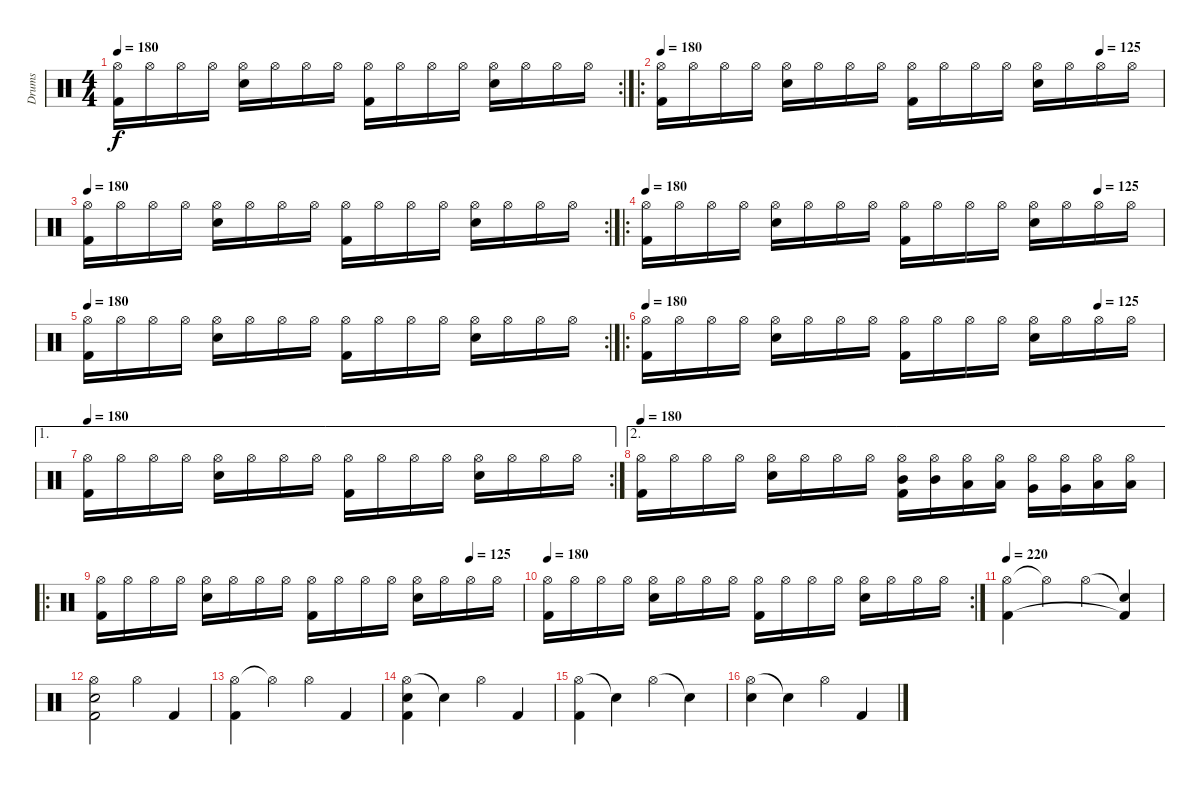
\track ("Drums" "Drums") {instrument percussion}
\staff {score}
\articulation defaults
\rc 2
\ts (4 4)
\tempo 180
\clef neutral
\ks c
("Hi-Hat (open)" "Kick (hit) 2").16{dy f} "Hi-Hat (open)".16 "Hi-Hat (open)".16 "Hi-Hat (open)".16 ("Hi-Hat (open)" "Snare (hit) 2").16 "Hi-Hat (open)".16 "Hi-Hat (open)".16 "Hi-Hat (open)".16 ("Hi-Hat (open)" "Kick (hit) 2").16 "Hi-Hat (open)".16 "Hi-Hat (open)".16 "Hi-Hat (open)".16 ("Hi-Hat (open)" "Snare (hit) 2").16 "Hi-Hat (open)".16 "Hi-Hat (open)".16 "Hi-Hat (open)".16 |
\ro
\tempo 180
\tempo (125 0.875)
("Hi-Hat (open)" "Kick (hit) 2").16 "Hi-Hat (open)".16 "Hi-Hat (open)".16 "Hi-Hat (open)".16 ("Hi-Hat (open)" "Snare (hit) 2").16 "Hi-Hat (open)".16 "Hi-Hat (open)".16 "Hi-Hat (open)".16 ("Hi-Hat (open)" "Kick (hit) 2").16 "Hi-Hat (open)".16 "Hi-Hat (open)".16 "Hi-Hat (open)".16 ("Hi-Hat (open)" "Snare (hit) 2").16 "Hi-Hat (open)".16 "Hi-Hat (open)".16 "Hi-Hat (open)".16 |
\rc 2
\tempo 180
("Hi-Hat (open)" "Kick (hit) 2").16 "Hi-Hat (open)".16 "Hi-Hat (open)".16 "Hi-Hat (open)".16 ("Hi-Hat (open)" "Snare (hit) 2").16 "Hi-Hat (open)".16 "Hi-Hat (open)".16 "Hi-Hat (open)".16 ("Hi-Hat (open)" "Kick (hit) 2").16 "Hi-Hat (open)".16 "Hi-Hat (open)".16 "Hi-Hat (open)".16 ("Hi-Hat (open)" "Snare (hit) 2").16 "Hi-Hat (open)".16 "Hi-Hat (open)".16 "Hi-Hat (open)".16 |
\ro
\tempo 180
\tempo (125 0.875)
("Hi-Hat (open)" "Kick (hit) 2").16 "Hi-Hat (open)".16 "Hi-Hat (open)".16 "Hi-Hat (open)".16 ("Hi-Hat (open)" "Snare (hit) 2").16 "Hi-Hat (open)".16 "Hi-Hat (open)".16 "Hi-Hat (open)".16 ("Hi-Hat (open)" "Kick (hit) 2").16 "Hi-Hat (open)".16 "Hi-Hat (open)".16 "Hi-Hat (open)".16 ("Hi-Hat (open)" "Snare (hit) 2").16 "Hi-Hat (open)".16 "Hi-Hat (open)".16 "Hi-Hat (open)".16 |
\rc 2
\tempo 180
("Hi-Hat (open)" "Kick (hit) 2").16 "Hi-Hat (open)".16 "Hi-Hat (open)".16 "Hi-Hat (open)".16 ("Hi-Hat (open)" "Snare (hit) 2").16 "Hi-Hat (open)".16 "Hi-Hat (open)".16 "Hi-Hat (open)".16 ("Hi-Hat (open)" "Kick (hit) 2").16 "Hi-Hat (open)".16 "Hi-Hat (open)".16 "Hi-Hat (open)".16 ("Hi-Hat (open)" "Snare (hit) 2").16 "Hi-Hat (open)".16 "Hi-Hat (open)".16 "Hi-Hat (open)".16 |
\ro
\tempo 180
\tempo (125 0.875)
("Hi-Hat (open)" "Kick (hit) 2").16 "Hi-Hat (open)".16 "Hi-Hat (open)".16 "Hi-Hat (open)".16 ("Hi-Hat (open)" "Snare (hit) 2").16 "Hi-Hat (open)".16 "Hi-Hat (open)".16 "Hi-Hat (open)".16 ("Hi-Hat (open)" "Kick (hit) 2").16 "Hi-Hat (open)".16 "Hi-Hat (open)".16 "Hi-Hat (open)".16 ("Hi-Hat (open)" "Snare (hit) 2").16 "Hi-Hat (open)".16 "Hi-Hat (open)".16 "Hi-Hat (open)".16 |
\ae 1
\rc 2
\tempo 180
("Hi-Hat (open)" "Kick (hit) 2").16 "Hi-Hat (open)".16 "Hi-Hat (open)".16 "Hi-Hat (open)".16 ("Hi-Hat (open)" "Snare (hit) 2").16 "Hi-Hat (open)".16 "Hi-Hat (open)".16 "Hi-Hat (open)".16 ("Hi-Hat (open)" "Kick (hit) 2").16 "Hi-Hat (open)".16 "Hi-Hat (open)".16 "Hi-Hat (open)".16 ("Hi-Hat (open)" "Snare (hit) 2").16 "Hi-Hat (open)".16 "Hi-Hat (open)".16 "Hi-Hat (open)".16 |
\ae 2
\tempo 180
("Hi-Hat (open)" "Kick (hit) 2").16 "Hi-Hat (open)".16 "Hi-Hat (open)".16 "Hi-Hat (open)".16 ("Hi-Hat (open)" "Snare (hit) 2").16 "Hi-Hat (open)".16 "Hi-Hat (open)".16 "Hi-Hat (open)".16 ("Hi-Hat (open)" "Mid Tom (hit)" "Kick (hit) 2").16 ("Hi-Hat (open)" "Mid Tom (hit)").16 ("Hi-Hat (open)" "Low Tom (hit)").16 ("Hi-Hat (open)" "Low Tom (hit)").16 ("Hi-Hat (open)" "Very Low Tom (hit)").16 ("Hi-Hat (open)" "Very Low Tom (hit)").16 ("Hi-Hat (open)" "Low Floor Tom (hit)").16 ("Hi-Hat (open)" "Low Floor Tom (hit)").16 |
\ro
\tempo (125 0.875)
("Hi-Hat (open)" "Kick (hit) 2").16 "Hi-Hat (open)".16 "Hi-Hat (open)".16 "Hi-Hat (open)".16 ("Hi-Hat (open)" "Snare (hit) 2").16 "Hi-Hat (open)".16 "Hi-Hat (open)".16 "Hi-Hat (open)".16 ("Hi-Hat (open)" "Kick (hit) 2").16 "Hi-Hat (open)".16 "Hi-Hat (open)".16 "Hi-Hat (open)".16 ("Hi-Hat (open)" "Snare (hit) 2").16 "Hi-Hat (open)".16 "Hi-Hat (open)".16 "Hi-Hat (open)".16 |
\rc 2
\tempo 180
("Hi-Hat (open)" "Kick (hit) 2").16 "Hi-Hat (open)".16 "Hi-Hat (open)".16 "Hi-Hat (open)".16 ("Hi-Hat (open)" "Snare (hit) 2").16 "Hi-Hat (open)".16 "Hi-Hat (open)".16 "Hi-Hat (open)".16 ("Hi-Hat (open)" "Kick (hit) 2").16 "Hi-Hat (open)".16 "Hi-Hat (open)".16 "Hi-Hat (open)".16 ("Hi-Hat (open)" "Snare (hit) 2").16 "Hi-Hat (open)".16 "Hi-Hat (open)".16 "Hi-Hat (open)".16 |
\tempo 250
\tempo 220
("Hi-Hat (open)" "Kick (hit) 2").4 "Hi-Hat (open)"{t}.4 "Hi-Hat (open)".4 ("Snare (hit)"{t} "Kick (hit) 2"{t}).4 |
("Hi-Hat (open)" "Snare (hit) 2" "Kick (hit) 2").2 "Hi-Hat (open)".4 "Kick (hit) 2".4 |
("Hi-Hat (open)" "Kick (hit) 2").4 "Hi-Hat (open)"{t}.4 "Hi-Hat (open)".4 "Kick (hit) 2".4 |
("Hi-Hat (open)" "Snare (hit) 2" "Kick (hit) 2").4 "Snare (hit)"{t}.4 "Hi-Hat (open)".4 "Kick (hit) 2".4 |
("Hi-Hat (open)" "Kick (hit) 2").4 "Snare (hit)"{t}.4 "Hi-Hat (open)".4 "Snare (hit)"{t}.4 |
("Hi-Hat (open)" "Snare (hit) 2").4 "Snare (hit)"{t}.4 "Hi-Hat (open)".4 "Kick (hit) 2".4
